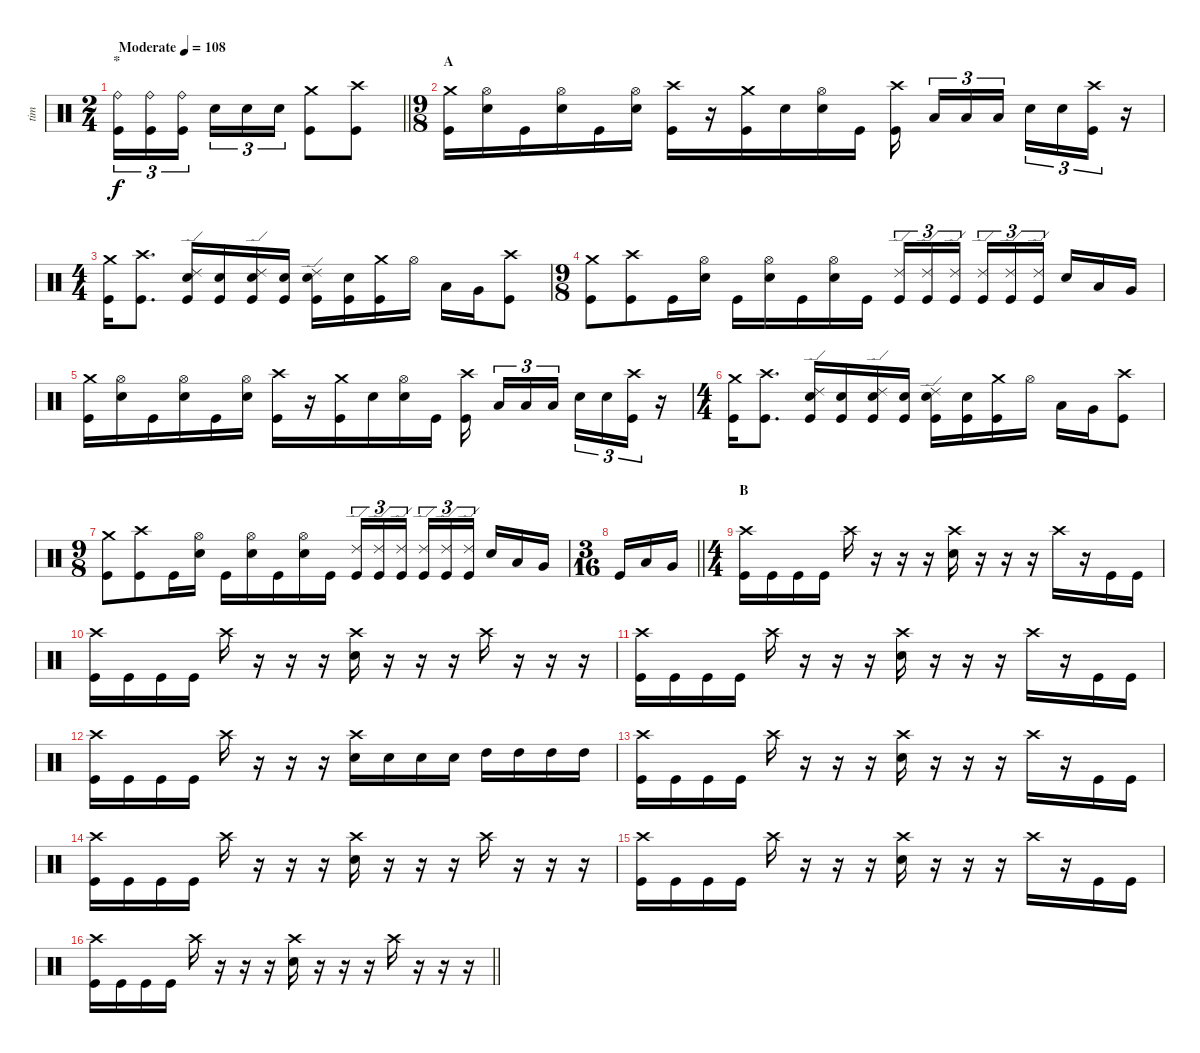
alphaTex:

\track ("tim" "tim") {instrument percussion}
\staff {score}
\articulation defaults
\ts (2 4)
\section ("" "*")
\tempo (108 "Moderate")
\clef neutral
\barLineRight lightlight
\ks c
("Ride (bell)" "Kick (hit)").16{tu (3 2) dy f} ("Ride (bell)" "Kick (hit)").16{tu (3 2)} ("Ride (bell)" "Kick (hit)").16{tu (3 2) beam splitsecondary} "Snare (hit) 2".16{tu (3 2)} "Snare (hit) 2".16{tu (3 2)} "Snare (hit) 2".16{tu (3 2)} ("Crash medium (hit)" "Kick (hit)").8 ("Crash high (hit)" "Kick (hit)").8 |
\ts (9 8)
\section ("" "A")
("Crash medium (hit)" "Kick (hit)").16 ("Hi-Hat (open)" "Snare (hit) 2").16 "Kick (hit)".16 ("Hi-Hat (open)" "Snare (hit) 2").16 "Kick (hit)".16 ("Hi-Hat (open)" "Snare (hit) 2").16 ("Crash high (hit)" "Kick (hit)").16 r.16 ("Crash medium (hit)" "Kick (hit)").16 "Snare (hit) 2".16 ("Hi-Hat (open)" "Snare (hit) 2").16 "Kick (hit)".16 ("Crash high (hit)" "Kick (hit)").16{beam splitsecondary} "Low Tom (hit)".16{tu (3 2)} "Low Tom (hit)".16{tu (3 2)} "Low Tom (hit)".16{tu (3 2) beam splitsecondary} "Snare (hit) 2".16{tu (3 2)} "Snare (hit) 2".16{tu (3 2)} ("Crash high (hit)" "Kick (hit)").16{tu (3 2)} r.16 |
\ts (4 4)
("Crash medium (hit)" "Kick (hit)").16 ("Crash high (hit)" "Kick (hit)").8{d} ("Ride (edge) 2" "Snare (hit) 2" "Kick (hit)").16 ("Snare (hit) 2" "Kick (hit)").16 ("Ride (edge) 2" "Snare (hit) 2" "Kick (hit)").16 ("Snare (hit) 2" "Kick (hit)").16 ("Ride (edge) 2" "Snare (hit) 2" "Kick (hit)").16 ("Snare (hit) 2" "Kick (hit)").16 ("Crash medium (hit)" "Kick (hit)").16 "Hi-Hat (open)".16 "Low Tom (hit)".16 "Very Low Tom (hit)".16 ("Crash high (hit)" "Kick (hit)").8 |
\ts (9 8)
("Crash medium (hit)" "Kick (hit)").8 ("Crash high (hit)" "Kick (hit)").8 "Kick (hit)".16 ("Hi-Hat (open)" "Snare (hit) 2").16 "Kick (hit)".16 ("Hi-Hat (open)" "Snare (hit) 2").16 "Kick (hit)".16 ("Hi-Hat (open)" "Snare (hit) 2").16 "Kick (hit)".16{beam splitsecondary} ("Ride (edge) 2" "Kick (hit)").16{tu (3 2)} ("Ride (edge) 2" "Kick (hit)").16{tu (3 2)} ("Ride (edge) 2" "Kick (hit)").16{tu (3 2) beam splitsecondary} ("Ride (edge) 2" "Kick (hit)").16{tu (3 2)} ("Ride (edge) 2" "Kick (hit)").16{tu (3 2)} ("Ride (edge) 2" "Kick (hit)").16{tu (3 2) beam splitsecondary} "Snare (hit) 2".16 "Low Tom (hit)".16 "Very Low Tom (hit)".16 |
("Crash medium (hit)" "Kick (hit)").16 ("Hi-Hat (open)" "Snare (hit) 2").16 "Kick (hit)".16 ("Hi-Hat (open)" "Snare (hit) 2").16 "Kick (hit)".16 ("Hi-Hat (open)" "Snare (hit) 2").16 ("Crash high (hit)" "Kick (hit)").16 r.16 ("Crash medium (hit)" "Kick (hit)").16 "Snare (hit) 2".16 ("Hi-Hat (open)" "Snare (hit) 2").16 "Kick (hit)".16 ("Crash high (hit)" "Kick (hit)").16{beam splitsecondary} "Low Tom (hit)".16{tu (3 2)} "Low Tom (hit)".16{tu (3 2)} "Low Tom (hit)".16{tu (3 2) beam splitsecondary} "Snare (hit) 2".16{tu (3 2)} "Snare (hit) 2".16{tu (3 2)} ("Crash high (hit)" "Kick (hit)").16{tu (3 2)} r.16 |
\ts (4 4)
("Crash medium (hit)" "Kick (hit)").16 ("Crash high (hit)" "Kick (hit)").8{d} ("Ride (edge) 2" "Snare (hit) 2" "Kick (hit)").16 ("Snare (hit) 2" "Kick (hit)").16 ("Ride (edge) 2" "Snare (hit) 2" "Kick (hit)").16 ("Snare (hit) 2" "Kick (hit)").16 ("Ride (edge) 2" "Snare (hit) 2" "Kick (hit)").16 ("Snare (hit) 2" "Kick (hit)").16 ("Crash medium (hit)" "Kick (hit)").16 "Hi-Hat (open)".16 "Low Tom (hit)".16 "Very Low Tom (hit)".16 ("Crash high (hit)" "Kick (hit)").8 |
\ts (9 8)
("Crash medium (hit)" "Kick (hit)").8 ("Crash high (hit)" "Kick (hit)").8 "Kick (hit)".16 ("Hi-Hat (open)" "Snare (hit) 2").16 "Kick (hit)".16 ("Hi-Hat (open)" "Snare (hit) 2").16 "Kick (hit)".16 ("Hi-Hat (open)" "Snare (hit) 2").16 "Kick (hit)".16{beam splitsecondary} ("Ride (edge) 2" "Kick (hit)").16{tu (3 2)} ("Ride (edge) 2" "Kick (hit)").16{tu (3 2)} ("Ride (edge) 2" "Kick (hit)").16{tu (3 2) beam splitsecondary} ("Ride (edge) 2" "Kick (hit)").16{tu (3 2)} ("Ride (edge) 2" "Kick (hit)").16{tu (3 2)} ("Ride (edge) 2" "Kick (hit)").16{tu (3 2) beam splitsecondary} "Snare (hit) 2".16 "Low Tom (hit)".16 "Very Low Tom (hit)".16 |
\ts (3 16)
\barLineRight lightlight "Kick (hit)".16 "Low Tom (hit)".16 "Very Low Tom (hit)".16
|
\ts (4 4)
\section ("" "B")
("Crash high (hit)" "Kick (hit)").16 "Kick (hit)".16 "Kick (hit)".16 "Kick (hit)".16 "Crash high (hit)".16 r.16 r.16 r.16 ("Crash high (hit)" "Snare (hit) 2").16 r.16 r.16 r.16 "Crash high (hit)".16 r.16 "Kick (hit)".16 "Kick (hit)".16 |
("Crash high (hit)" "Kick (hit)").16 "Kick (hit)".16 "Kick (hit)".16 "Kick (hit)".16 "Crash high (hit)".16 r.16 r.16 r.16 ("Crash high (hit)" "Snare (hit) 2").16 r.16 r.16 r.16 "Crash high (hit)".16 r.16 r.16 r.16 |
("Crash high (hit)" "Kick (hit)").16 "Kick (hit)".16 "Kick (hit)".16 "Kick (hit)".16 "Crash high (hit)".16 r.16 r.16 r.16 ("Crash high (hit)" "Snare (hit) 2").16 r.16 r.16 r.16 "Crash high (hit)".16 r.16 "Kick (hit)".16 "Kick (hit)".16 |
("Crash high (hit)" "Kick (hit)").16 "Kick (hit)".16 "Kick (hit)".16 "Kick (hit)".16 "Crash high (hit)".16 r.16 r.16 r.16 ("Crash high (hit)" "Snare (hit) 2").16 "Snare (hit) 2".16 "Snare (hit) 2".16 "Snare (hit) 2".16 "High Tom (hit)".16 "High Tom (hit)".16 "High Tom (hit)".16 "High Tom (hit)".16 |
("Crash high (hit)" "Kick (hit)").16 "Kick (hit)".16 "Kick (hit)".16 "Kick (hit)".16 "Crash high (hit)".16 r.16 r.16 r.16 ("Crash high (hit)" "Snare (hit) 2").16 r.16 r.16 r.16 "Crash high (hit)".16 r.16 "Kick (hit)".16 "Kick (hit)".16 |
("Crash high (hit)" "Kick (hit)").16 "Kick (hit)".16 "Kick (hit)".16 "Kick (hit)".16 "Crash high (hit)".16 r.16 r.16 r.16 ("Crash high (hit)" "Snare (hit) 2").16 r.16 r.16 r.16 "Crash high (hit)".16 r.16 r.16 r.16 |
("Crash high (hit)" "Kick (hit)").16 "Kick (hit)".16 "Kick (hit)".16 "Kick (hit)".16 "Crash high (hit)".16 r.16 r.16 r.16 ("Crash high (hit)" "Snare (hit) 2").16 r.16 r.16 r.16 "Crash high (hit)".16 r.16 "Kick (hit)".16 "Kick (hit)".16 |
\barLineRight lightlight
("Crash high (hit)" "Kick (hit)").16 "Kick (hit)".16 "Kick (hit)".16 "Kick (hit)".16 "Crash high (hit)".16 r.16 r.16 r.16 ("Crash high (hit)" "Snare (hit) 2").16 r.16 r.16 r.16 "Crash high (hit)".16 r.16 r.16 r.16
